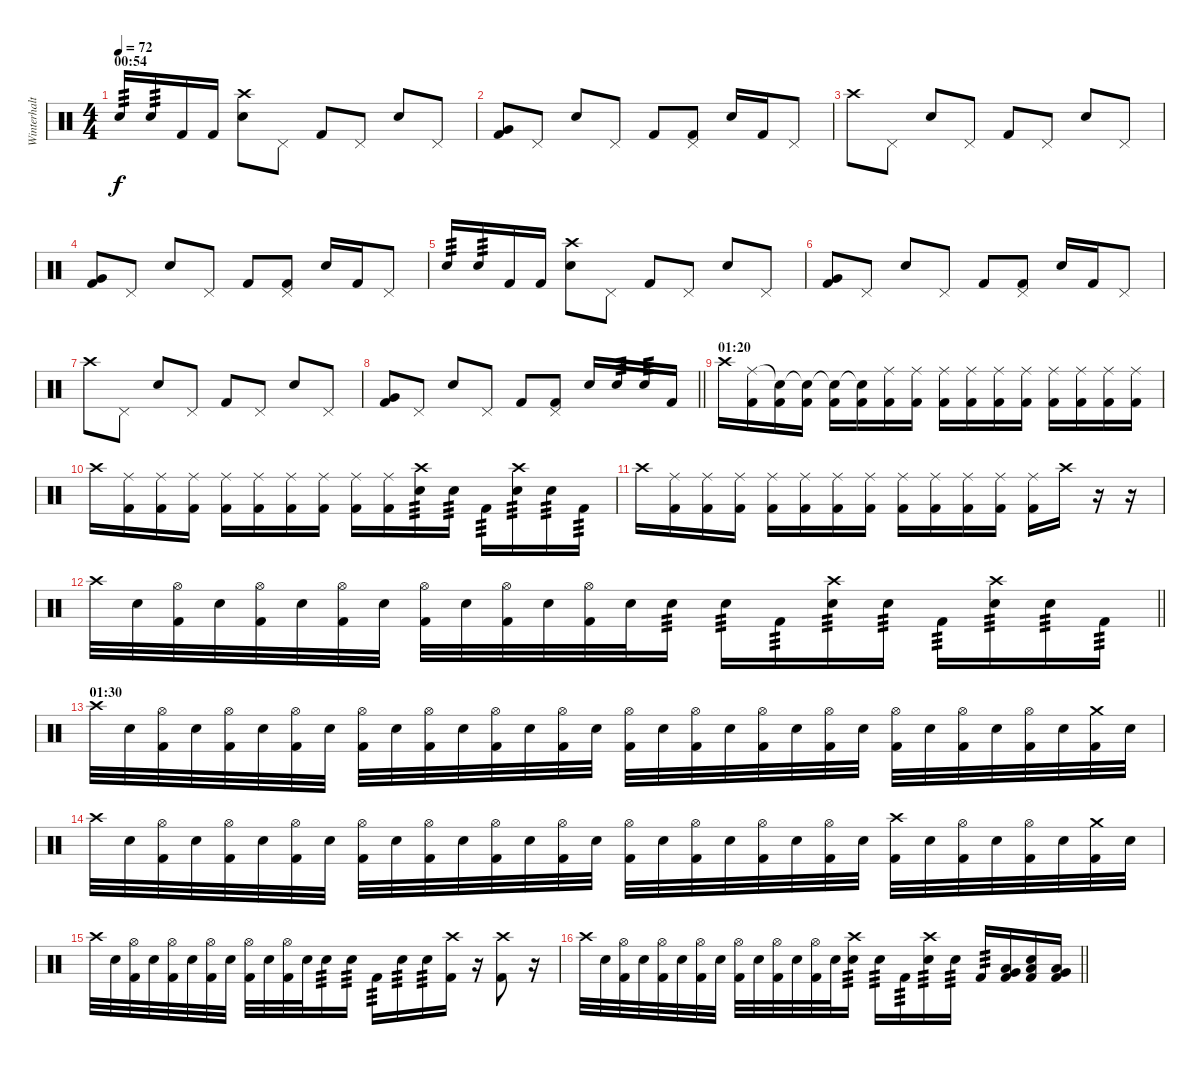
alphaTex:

\track ("Winterhalten" "Winterhalt") {instrument percussion}
\staff {score}
\articulation defaults
\ts (4 4)
\section ("" "00:54")
\tempo 72
\clef neutral
\ks c "Electric Snare (hit)".16{tp 3 dy f} "Electric Snare (hit)".16{tp 3} "Kick (hit) 2".16 "Kick (hit) 2".16
("Crash high (hit)" "Electric Snare (hit)").8 "Pedal Hi-Hat (hit)".8 "Kick (hit) 2".8 "Pedal Hi-Hat (hit)".8 "Electric Snare (hit)".8 "Pedal Hi-Hat (hit)".8 |
("Very Low Tom (hit)" "Kick (hit) 2").8{bd 120} "Pedal Hi-Hat (hit)".8 "Electric Snare (hit)".8 "Pedal Hi-Hat (hit)".8 "Kick (hit) 2".8 ("Pedal Hi-Hat (hit)" "Kick (hit) 2").8 "Electric Snare (hit)".16 "Kick (hit) 2".16 "Pedal Hi-Hat (hit)".8 |
"Crash high (hit)".8 "Pedal Hi-Hat (hit)".8 "Electric Snare (hit)".8 "Pedal Hi-Hat (hit)".8 "Kick (hit) 2".8 "Pedal Hi-Hat (hit)".8 "Electric Snare (hit)".8 "Pedal Hi-Hat (hit)".8 |
("Very Low Tom (hit)" "Kick (hit) 2").8{bd 120} "Pedal Hi-Hat (hit)".8 "Electric Snare (hit)".8 "Pedal Hi-Hat (hit)".8 "Kick (hit) 2".8 ("Pedal Hi-Hat (hit)" "Kick (hit) 2").8 "Electric Snare (hit)".16 "Kick (hit) 2".16 "Pedal Hi-Hat (hit)".8 |
"Electric Snare (hit)".16{tp 3} "Electric Snare (hit)".16{tp 3} "Kick (hit) 2".16 "Kick (hit) 2".16 ("Crash high (hit)" "Electric Snare (hit)").8 "Pedal Hi-Hat (hit)".8 "Kick (hit) 2".8 "Pedal Hi-Hat (hit)".8 "Electric Snare (hit)".8 "Pedal Hi-Hat (hit)".8 |
("Very Low Tom (hit)" "Kick (hit) 2").8{bd 120} "Pedal Hi-Hat (hit)".8 "Electric Snare (hit)".8 "Pedal Hi-Hat (hit)".8 "Kick (hit) 2".8 ("Pedal Hi-Hat (hit)" "Kick (hit) 2").8 "Electric Snare (hit)".16 "Kick (hit) 2".16 "Pedal Hi-Hat (hit)".8 |
"Crash high (hit)".8 "Pedal Hi-Hat (hit)".8 "Electric Snare (hit)".8 "Pedal Hi-Hat (hit)".8 "Kick (hit) 2".8 "Pedal Hi-Hat (hit)".8 "Electric Snare (hit)".8 "Pedal Hi-Hat (hit)".8 |
\barLineRight lightlight
("Very Low Tom (hit)" "Kick (hit) 2").8{bd 120} "Pedal Hi-Hat (hit)".8 "Electric Snare (hit)".8 "Pedal Hi-Hat (hit)".8 "Kick (hit) 2".8 ("Pedal Hi-Hat (hit)" "Kick (hit) 2").8 "Electric Snare (hit)".16 "Electric Snare (hit)".16{tp 3} "Electric Snare (hit)".16{tp 3} "Kick (hit) 2".16 |
\section ("" "01:20")
"Crash high (hit)".16 ("Ride (middle)" "Kick (hit) 2").16 ("Snare (hit)"{t} "Kick (hit) 2").16 ("Snare (hit)"{t} "Kick (hit) 2").16 ("Snare (hit)"{t} "Kick (hit) 2").16 ("Snare (hit)"{t} "Kick (hit) 2").16 ("Ride (middle)" "Kick (hit) 2").16 ("Ride (middle)" "Kick (hit) 2").16 ("Ride (middle)" "Kick (hit) 2").16 ("Ride (middle)" "Kick (hit) 2").16 ("Ride (middle)" "Kick (hit) 2").16 ("Ride (middle)" "Kick (hit) 2").16 ("Ride (middle)" "Kick (hit) 2").16 ("Ride (middle)" "Kick (hit) 2").16 ("Ride (middle)" "Kick (hit) 2").16 ("Ride (middle)" "Kick (hit) 2").16 |
"Crash high (hit)".16 ("Ride (middle)" "Kick (hit) 2").16 ("Ride (middle)" "Kick (hit) 2").16 ("Ride (middle)" "Kick (hit) 2").16 ("Ride (middle)" "Kick (hit) 2").16 ("Ride (middle)" "Kick (hit) 2").16 ("Ride (middle)" "Kick (hit) 2").16 ("Ride (middle)" "Kick (hit) 2").16 ("Ride (middle)" "Kick (hit) 2").16 ("Ride (middle)" "Kick (hit) 2").16 ("Crash high (hit)" "Electric Snare (hit)").16{tp 3} "Electric Snare (hit)".16{tp 3} "Kick (hit) 2".16{tp 3} ("Crash high (hit)" "Electric Snare (hit)").16{tp 3} "Electric Snare (hit)".16{tp 3} "Kick (hit) 2".16{tp 3} |
"Crash high (hit)".16 ("Ride (middle)" "Kick (hit) 2").16 ("Ride (middle)" "Kick (hit) 2").16 ("Ride (middle)" "Kick (hit) 2").16 ("Ride (middle)" "Kick (hit) 2").16 ("Ride (middle)" "Kick (hit) 2").16 ("Ride (middle)" "Kick (hit) 2").16 ("Ride (middle)" "Kick (hit) 2").16 ("Ride (middle)" "Kick (hit) 2").16 ("Ride (middle)" "Kick (hit) 2").16 ("Ride (middle)" "Kick (hit) 2").16 ("Ride (middle)" "Kick (hit) 2").16 ("Ride (middle)" "Kick (hit) 2").16 "Crash high (hit)".16 r.16 r.16 |
\barLineRight lightlight "Crash high (hit)".32 "Electric Snare (hit)".32
("Hi-Hat (open)" "Kick (hit) 2").32 "Electric Snare (hit)".32 ("Hi-Hat (open)" "Kick (hit) 2").32 "Electric Snare (hit)".32 ("Hi-Hat (open)" "Kick (hit) 2").32 "Electric Snare (hit)".32 ("Hi-Hat (open)" "Kick (hit) 2").32 "Electric Snare (hit)".32 ("Hi-Hat (open)" "Kick (hit) 2").32 "Electric Snare (hit)".32 ("Hi-Hat (open)" "Kick (hit) 2").32 "Electric Snare (hit)".32 "Electric Snare (hit)".16{tp 3} "Electric Snare (hit)".16{tp 3} "Kick (hit) 2".16{tp 3} ("Crash high (hit)" "Electric Snare (hit)").16{tp 3} "Electric Snare (hit)".16{tp 3} "Kick (hit) 2".16{tp 3} ("Crash high (hit)" "Electric Snare (hit)").16{tp 3} "Electric Snare (hit)".16{tp 3} "Kick (hit) 2".16{tp 3} |
\section ("" "01:30")
"Crash high (hit)".32 "Electric Snare (hit)".32 ("Hi-Hat (open)" "Kick (hit) 2").32 "Electric Snare (hit)".32 ("Hi-Hat (open)" "Kick (hit) 2").32 "Electric Snare (hit)".32 ("Hi-Hat (open)" "Kick (hit) 2").32 "Electric Snare (hit)".32 ("Hi-Hat (open)" "Kick (hit) 2").32 "Electric Snare (hit)".32 ("Hi-Hat (open)" "Kick (hit) 2").32 "Electric Snare (hit)".32 ("Hi-Hat (open)" "Kick (hit) 2").32 "Electric Snare (hit)".32 ("Hi-Hat (open)" "Kick (hit) 2").32 "Electric Snare (hit)".32 ("Hi-Hat (open)" "Kick (hit) 2").32 "Electric Snare (hit)".32 ("Hi-Hat (open)" "Kick (hit) 2").32 "Electric Snare (hit)".32 ("Hi-Hat (open)" "Kick (hit) 2").32 "Electric Snare (hit)".32 ("Hi-Hat (open)" "Kick (hit) 2").32 "Electric Snare (hit)".32 ("Hi-Hat (open)" "Kick (hit) 2").32 "Electric Snare (hit)".32 ("Hi-Hat (open)" "Kick (hit) 2").32 "Electric Snare (hit)".32 ("Hi-Hat (open)" "Kick (hit) 2").32 "Electric Snare (hit)".32 ("Crash medium (hit)" "Kick (hit) 2").32 "Electric Snare (hit)".32 |
"Crash high (hit)".32 "Electric Snare (hit)".32 ("Hi-Hat (open)" "Kick (hit) 2").32 "Electric Snare (hit)".32 ("Hi-Hat (open)" "Kick (hit) 2").32 "Electric Snare (hit)".32 ("Hi-Hat (open)" "Kick (hit) 2").32 "Electric Snare (hit)".32 ("Hi-Hat (open)" "Kick (hit) 2").32 "Electric Snare (hit)".32 ("Hi-Hat (open)" "Kick (hit) 2").32 "Electric Snare (hit)".32 ("Hi-Hat (open)" "Kick (hit) 2").32 "Electric Snare (hit)".32 ("Hi-Hat (open)" "Kick (hit) 2").32 "Electric Snare (hit)".32 ("Hi-Hat (open)" "Kick (hit) 2").32 "Electric Snare (hit)".32 ("Hi-Hat (open)" "Kick (hit) 2").32 "Electric Snare (hit)".32 ("Hi-Hat (open)" "Kick (hit) 2").32 "Electric Snare (hit)".32 ("Hi-Hat (open)" "Kick (hit) 2").32 "Electric Snare (hit)".32 ("Crash high (hit)" "Kick (hit) 2").32 "Electric Snare (hit)".32 ("Hi-Hat (open)" "Kick (hit) 2").32 "Electric Snare (hit)".32 ("Hi-Hat (open)" "Kick (hit) 2").32 "Electric Snare (hit)".32 ("Crash medium (hit)" "Kick (hit) 2").32 "Electric Snare (hit)".32 |
"Crash high (hit)".32 "Electric Snare (hit)".32 ("Hi-Hat (open)" "Kick (hit) 2").32 "Electric Snare (hit)".32 ("Hi-Hat (open)" "Kick (hit) 2").32 "Electric Snare (hit)".32 ("Hi-Hat (open)" "Kick (hit) 2").32 "Electric Snare (hit)".32 ("Hi-Hat (open)" "Kick (hit) 2").32 "Electric Snare (hit)".32 ("Hi-Hat (open)" "Kick (hit) 2").32 "Electric Snare (hit)".32 "Electric Snare (hit)".16{tp 3} "Electric Snare (hit)".16{tp 3} "Kick (hit) 2".16{tp 3} "Electric Snare (hit)".16{tp 3} "Electric Snare (hit)".16{tp 3} ("Crash high (hit)" "Kick (hit) 2").16 r.16 ("Crash high (hit)" "Kick (hit) 2").8 r.16 |
\barLineRight lightlight "Crash high (hit)".32 "Electric Snare (hit)".32
("Hi-Hat (open)" "Kick (hit) 2").32 "Electric Snare (hit)".32 ("Hi-Hat (open)" "Kick (hit) 2").32 "Electric Snare (hit)".32 ("Hi-Hat (open)" "Kick (hit) 2").32 "Electric Snare (hit)".32 ("Hi-Hat (open)" "Kick (hit) 2").32 "Electric Snare (hit)".32 ("Hi-Hat (open)" "Kick (hit) 2").32 "Electric Snare (hit)".32 ("Hi-Hat (open)" "Kick (hit) 2").32 "Electric Snare (hit)".32 ("Crash high (hit)" "Electric Snare (hit)").16{tp 3} "Electric Snare (hit)".16{tp 3} "Kick (hit) 2".16{tp 3} ("Crash high (hit)" "Electric Snare (hit)").16{tp 3} "Electric Snare (hit)".16{tp 3} "Kick (hit) 2".16{tp 3} ("Low Tom (hit)" "Very Low Tom (hit)" "Kick (hit) 2").16 ("Electric Snare (hit)" "Low Tom (hit)" "Kick (hit) 2").16 ("Low Tom (hit)" "Very Low Tom (hit)" "Kick (hit) 2").16
